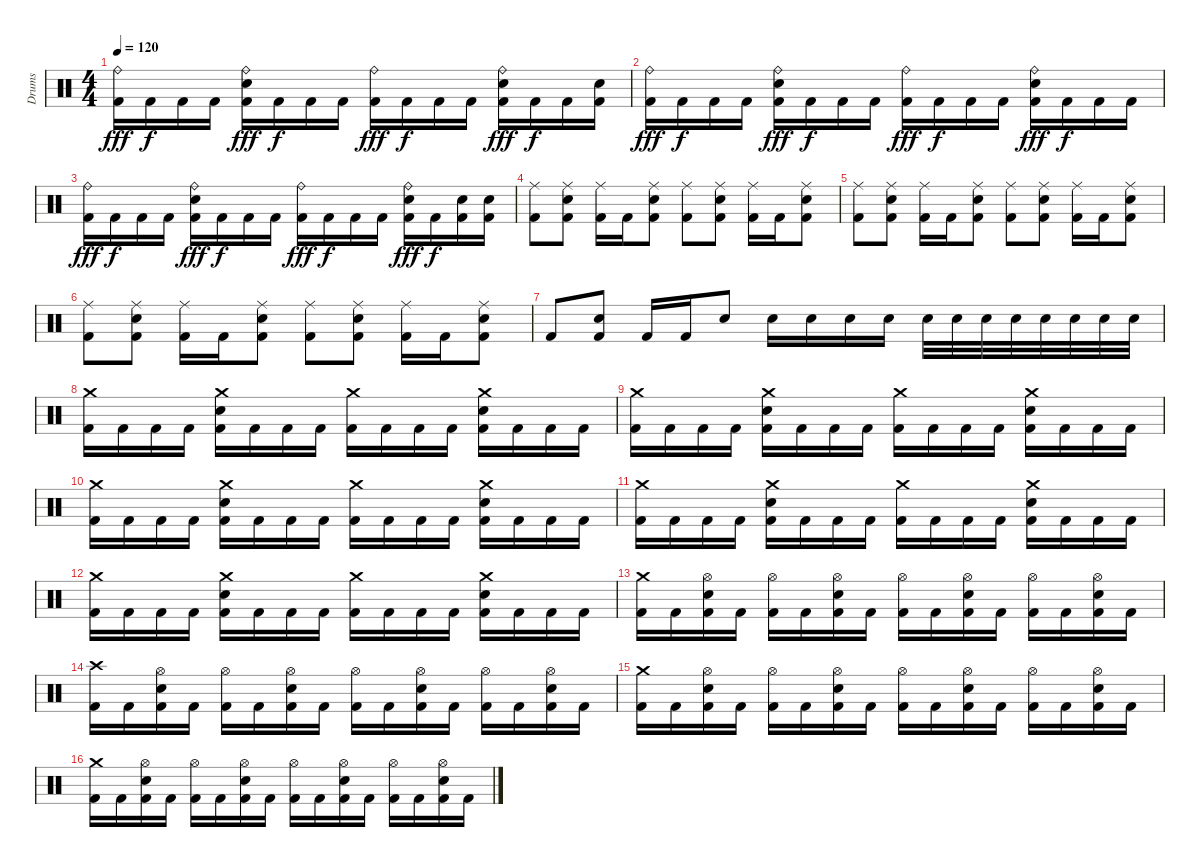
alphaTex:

\track ("Drums" "Drums") {instrument percussion}
\staff {score}
\articulation defaults
\ts (4 4)
\tempo 120
\clef neutral
\ks c
("Ride (bell)" "Kick (hit) 2").16{dy fff} "Kick (hit) 2".16{dy f} "Kick (hit) 2".16 "Kick (hit) 2".16 ("Ride (bell)" "Electric Snare (hit)" "Kick (hit) 2").16{dy fff} "Kick (hit) 2".16{dy f} "Kick (hit) 2".16 "Kick (hit) 2".16 ("Ride (bell)" "Kick (hit) 2").16{dy fff} "Kick (hit) 2".16{dy f} "Kick (hit) 2".16 "Kick (hit) 2".16 ("Ride (bell)" "Electric Snare (hit)" "Kick (hit) 2").16{dy fff} "Kick (hit) 2".16{dy f} "Kick (hit) 2".16 ("Electric Snare (hit)" "Kick (hit) 2").16 |
("Ride (bell)" "Kick (hit) 2").16{dy fff} "Kick (hit) 2".16{dy f} "Kick (hit) 2".16 "Kick (hit) 2".16 ("Ride (bell)" "Electric Snare (hit)" "Kick (hit) 2").16{dy fff} "Kick (hit) 2".16{dy f} "Kick (hit) 2".16 "Kick (hit) 2".16 ("Ride (bell)" "Kick (hit) 2").16{dy fff} "Kick (hit) 2".16{dy f} "Kick (hit) 2".16 "Kick (hit) 2".16 ("Ride (bell)" "Electric Snare (hit)" "Kick (hit) 2").16{dy fff} "Kick (hit) 2".16{dy f} "Kick (hit) 2".16 "Kick (hit) 2".16 |
("Ride (bell)" "Kick (hit) 2").16{dy fff} "Kick (hit) 2".16{dy f} "Kick (hit) 2".16 "Kick (hit) 2".16 ("Ride (bell)" "Electric Snare (hit)" "Kick (hit) 2").16{dy fff} "Kick (hit) 2".16{dy f} "Kick (hit) 2".16 "Kick (hit) 2".16 ("Ride (bell)" "Kick (hit) 2").16{dy fff} "Kick (hit) 2".16{dy f} "Kick (hit) 2".16 "Kick (hit) 2".16 ("Ride (bell)" "Electric Snare (hit)" "Kick (hit) 2").16{dy fff} "Kick (hit) 2".16{dy f} ("Electric Snare (hit)" "Kick (hit) 2").16 ("Electric Snare (hit)" "Kick (hit) 2").16 |
("Ride (middle)" "Kick (hit) 2").8 ("Ride (middle)" "Electric Snare (hit)" "Kick (hit) 2").8 ("Ride (middle)" "Kick (hit) 2").16 "Kick (hit) 2".16 ("Ride (middle)" "Electric Snare (hit)" "Kick (hit) 2").8 ("Ride (middle)" "Kick (hit) 2").8 ("Ride (middle)" "Electric Snare (hit)" "Kick (hit) 2").8 ("Ride (middle)" "Kick (hit) 2").16 "Kick (hit) 2".16 ("Ride (middle)" "Electric Snare (hit)" "Kick (hit) 2").8 |
("Ride (middle)" "Kick (hit) 2").8 ("Ride (middle)" "Electric Snare (hit)" "Kick (hit) 2").8 ("Ride (middle)" "Kick (hit) 2").16 "Kick (hit) 2".16 ("Ride (middle)" "Electric Snare (hit)" "Kick (hit) 2").8 ("Ride (middle)" "Kick (hit) 2").8 ("Ride (middle)" "Electric Snare (hit)" "Kick (hit) 2").8 ("Ride (middle)" "Kick (hit) 2").16 "Kick (hit) 2".16 ("Ride (middle)" "Electric Snare (hit)" "Kick (hit) 2").8 |
("Ride (middle)" "Kick (hit) 2").8 ("Ride (middle)" "Electric Snare (hit)" "Kick (hit) 2").8 ("Ride (middle)" "Kick (hit) 2").16 "Kick (hit) 2".16 ("Ride (middle)" "Electric Snare (hit)" "Kick (hit) 2").8 ("Ride (middle)" "Kick (hit) 2").8 ("Ride (middle)" "Electric Snare (hit)" "Kick (hit) 2").8 ("Ride (middle)" "Kick (hit) 2").16 "Kick (hit) 2".16 ("Ride (middle)" "Electric Snare (hit)" "Kick (hit) 2").8 |
"Kick (hit) 2".8 ("Electric Snare (hit)" "Kick (hit) 2").8 "Kick (hit) 2".16 "Kick (hit) 2".16 "Electric Snare (hit)".8 "Electric Snare (hit)".16 "Electric Snare (hit)".16 "Electric Snare (hit)".16 "Electric Snare (hit)".16 "Electric Snare (hit)".32 "Electric Snare (hit)".32 "Electric Snare (hit)".32 "Electric Snare (hit)".32 "Electric Snare (hit)".32 "Electric Snare (hit)".32 "Electric Snare (hit)".32 "Electric Snare (hit)".32 |
("Crash medium (hit)" "Kick (hit) 2").16 "Kick (hit) 2".16 "Kick (hit) 2".16 "Kick (hit) 2".16 ("Crash medium (hit)" "Electric Snare (hit)" "Kick (hit) 2").16 "Kick (hit) 2".16 "Kick (hit) 2".16 "Kick (hit) 2".16 ("Crash medium (hit)" "Kick (hit) 2").16 "Kick (hit) 2".16 "Kick (hit) 2".16 "Kick (hit) 2".16 ("Crash medium (hit)" "Electric Snare (hit)" "Kick (hit) 2").16 "Kick (hit) 2".16 "Kick (hit) 2".16 "Kick (hit) 2".16 |
("Crash medium (hit)" "Kick (hit) 2").16 "Kick (hit) 2".16 "Kick (hit) 2".16 "Kick (hit) 2".16 ("Crash medium (hit)" "Electric Snare (hit)" "Kick (hit) 2").16 "Kick (hit) 2".16 "Kick (hit) 2".16 "Kick (hit) 2".16 ("Crash medium (hit)" "Kick (hit) 2").16 "Kick (hit) 2".16 "Kick (hit) 2".16 "Kick (hit) 2".16 ("Crash medium (hit)" "Electric Snare (hit)" "Kick (hit) 2").16 "Kick (hit) 2".16 "Kick (hit) 2".16 "Kick (hit) 2".16 |
("Crash medium (hit)" "Kick (hit) 2").16 "Kick (hit) 2".16 "Kick (hit) 2".16 "Kick (hit) 2".16 ("Crash medium (hit)" "Electric Snare (hit)" "Kick (hit) 2").16 "Kick (hit) 2".16 "Kick (hit) 2".16 "Kick (hit) 2".16 ("Crash medium (hit)" "Kick (hit) 2").16 "Kick (hit) 2".16 "Kick (hit) 2".16 "Kick (hit) 2".16 ("Crash medium (hit)" "Electric Snare (hit)" "Kick (hit) 2").16 "Kick (hit) 2".16 "Kick (hit) 2".16 "Kick (hit) 2".16 |
("Crash medium (hit)" "Kick (hit) 2").16 "Kick (hit) 2".16 "Kick (hit) 2".16 "Kick (hit) 2".16 ("Crash medium (hit)" "Electric Snare (hit)" "Kick (hit) 2").16 "Kick (hit) 2".16 "Kick (hit) 2".16 "Kick (hit) 2".16 ("Crash medium (hit)" "Kick (hit) 2").16 "Kick (hit) 2".16 "Kick (hit) 2".16 "Kick (hit) 2".16 ("Crash medium (hit)" "Electric Snare (hit)" "Kick (hit) 2").16 "Kick (hit) 2".16 "Kick (hit) 2".16 "Kick (hit) 2".16 |
("Crash medium (hit)" "Kick (hit) 2").16 "Kick (hit) 2".16 "Kick (hit) 2".16 "Kick (hit) 2".16 ("Crash medium (hit)" "Electric Snare (hit)" "Kick (hit) 2").16 "Kick (hit) 2".16 "Kick (hit) 2".16 "Kick (hit) 2".16 ("Crash medium (hit)" "Kick (hit) 2").16 "Kick (hit) 2".16 "Kick (hit) 2".16 "Kick (hit) 2".16 ("Crash medium (hit)" "Electric Snare (hit)" "Kick (hit) 2").16 "Kick (hit) 2".16 "Kick (hit) 2".16 "Kick (hit) 2".16 |
("Crash medium (hit)" "Kick (hit) 2").16 "Kick (hit) 2".16 ("Hi-Hat (open)" "Electric Snare (hit)" "Kick (hit) 2").16 "Kick (hit) 2".16 ("Hi-Hat (open)" "Kick (hit) 2").16 "Kick (hit) 2".16 ("Hi-Hat (open)" "Electric Snare (hit)" "Kick (hit) 2").16 "Kick (hit) 2".16 ("Hi-Hat (open)" "Kick (hit) 2").16 "Kick (hit) 2".16 ("Hi-Hat (open)" "Electric Snare (hit)" "Kick (hit) 2").16 "Kick (hit) 2".16 ("Hi-Hat (open)" "Kick (hit) 2").16 "Kick (hit) 2".16 ("Hi-Hat (open)" "Electric Snare (hit)" "Kick (hit) 2").16 "Kick (hit) 2".16 |
("Crash high (hit)" "Kick (hit) 2").16 "Kick (hit) 2".16 ("Hi-Hat (open)" "Electric Snare (hit)" "Kick (hit) 2").16 "Kick (hit) 2".16 ("Hi-Hat (open)" "Kick (hit) 2").16 "Kick (hit) 2".16 ("Hi-Hat (open)" "Electric Snare (hit)" "Kick (hit) 2").16 "Kick (hit) 2".16 ("Hi-Hat (open)" "Kick (hit) 2").16 "Kick (hit) 2".16 ("Hi-Hat (open)" "Electric Snare (hit)" "Kick (hit) 2").16 "Kick (hit) 2".16 ("Hi-Hat (open)" "Kick (hit) 2").16 "Kick (hit) 2".16 ("Hi-Hat (open)" "Electric Snare (hit)" "Kick (hit) 2").16 "Kick (hit) 2".16 |
("Crash medium (hit)" "Kick (hit) 2").16 "Kick (hit) 2".16 ("Hi-Hat (open)" "Electric Snare (hit)" "Kick (hit) 2").16 "Kick (hit) 2".16 ("Hi-Hat (open)" "Kick (hit) 2").16 "Kick (hit) 2".16 ("Hi-Hat (open)" "Electric Snare (hit)" "Kick (hit) 2").16 "Kick (hit) 2".16 ("Hi-Hat (open)" "Kick (hit) 2").16 "Kick (hit) 2".16 ("Hi-Hat (open)" "Electric Snare (hit)" "Kick (hit) 2").16 "Kick (hit) 2".16 ("Hi-Hat (open)" "Kick (hit) 2").16 "Kick (hit) 2".16 ("Hi-Hat (open)" "Electric Snare (hit)" "Kick (hit) 2").16 "Kick (hit) 2".16 |
("Crash medium (hit)" "Kick (hit) 2").16 "Kick (hit) 2".16 ("Hi-Hat (open)" "Electric Snare (hit)" "Kick (hit) 2").16 "Kick (hit) 2".16 ("Hi-Hat (open)" "Kick (hit) 2").16 "Kick (hit) 2".16 ("Hi-Hat (open)" "Electric Snare (hit)" "Kick (hit) 2").16 "Kick (hit) 2".16 ("Hi-Hat (open)" "Kick (hit) 2").16 "Kick (hit) 2".16 ("Hi-Hat (open)" "Electric Snare (hit)" "Kick (hit) 2").16 "Kick (hit) 2".16 ("Hi-Hat (open)" "Kick (hit) 2").16 "Kick (hit) 2".16 ("Hi-Hat (open)" "Electric Snare (hit)" "Kick (hit) 2").16 "Kick (hit) 2".16
